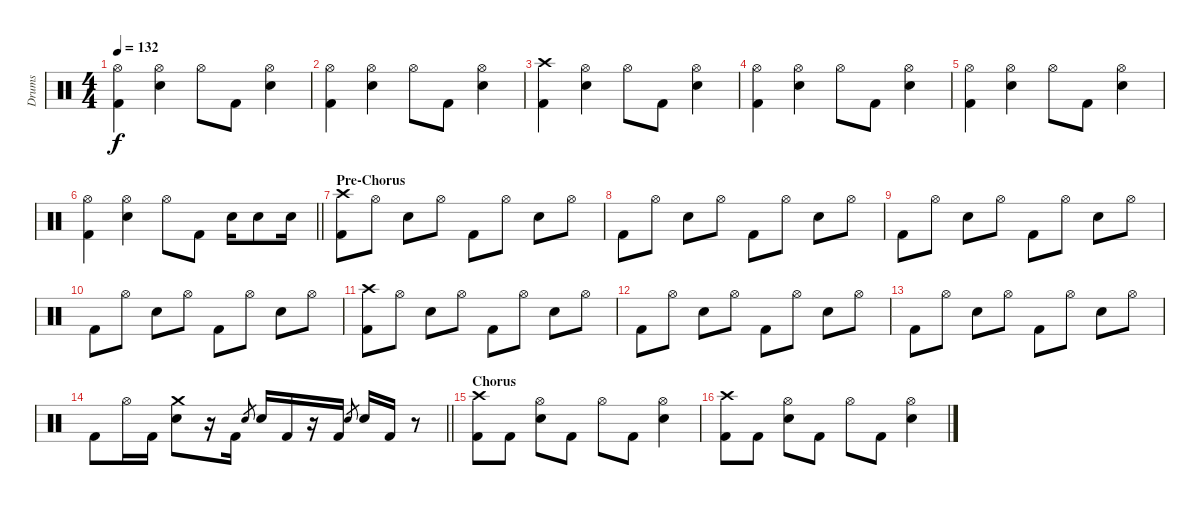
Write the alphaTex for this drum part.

\track ("Drums" "Drums") {instrument percussion}
\staff {score}
\articulation defaults
\ts (4 4)
\tempo 132
\clef neutral
\ks c
("Hi-Hat (open)" "Kick (hit) 2").4{dy f} ("Hi-Hat (open)" "Electric Snare (hit)").4 "Hi-Hat (open)".8 "Kick (hit) 2".8 ("Hi-Hat (open)" "Electric Snare (hit)").4 |
("Hi-Hat (open)" "Kick (hit) 2").4 ("Hi-Hat (open)" "Electric Snare (hit)").4 "Hi-Hat (open)".8 "Kick (hit) 2".8 ("Hi-Hat (open)" "Electric Snare (hit)").4 |
("Crash high (hit)" "Kick (hit) 2").4 ("Hi-Hat (open)" "Electric Snare (hit)").4 "Hi-Hat (open)".8 "Kick (hit) 2".8 ("Hi-Hat (open)" "Electric Snare (hit)").4 |
("Hi-Hat (open)" "Kick (hit) 2").4 ("Hi-Hat (open)" "Electric Snare (hit)").4 "Hi-Hat (open)".8 "Kick (hit) 2".8 ("Hi-Hat (open)" "Electric Snare (hit)").4 |
("Hi-Hat (open)" "Kick (hit) 2").4 ("Hi-Hat (open)" "Electric Snare (hit)").4 "Hi-Hat (open)".8 "Kick (hit) 2".8 ("Hi-Hat (open)" "Electric Snare (hit)").4 |
\barLineRight lightlight
("Hi-Hat (open)" "Kick (hit) 2").4 ("Hi-Hat (open)" "Electric Snare (hit)").4 "Hi-Hat (open)".8 "Kick (hit) 2".8 "Electric Snare (hit)".16 "Electric Snare (hit)".8 "Electric Snare (hit)".16 |
\section ("" "Pre-Chorus")
("Crash high (hit)" "Kick (hit) 2").8 "Hi-Hat (open)".8 "Electric Snare (hit)".8 "Hi-Hat (open)".8 "Kick (hit) 2".8 "Hi-Hat (open)".8 "Electric Snare (hit)".8 "Hi-Hat (open)".8 |
"Kick (hit) 2".8 "Hi-Hat (open)".8 "Electric Snare (hit)".8 "Hi-Hat (open)".8 "Kick (hit) 2".8 "Hi-Hat (open)".8 "Electric Snare (hit)".8 "Hi-Hat (open)".8 |
"Kick (hit) 2".8 "Hi-Hat (open)".8 "Electric Snare (hit)".8 "Hi-Hat (open)".8 "Kick (hit) 2".8 "Hi-Hat (open)".8 "Electric Snare (hit)".8 "Hi-Hat (open)".8 |
"Kick (hit) 2".8 "Hi-Hat (open)".8 "Electric Snare (hit)".8 "Hi-Hat (open)".8 "Kick (hit) 2".8 "Hi-Hat (open)".8 "Electric Snare (hit)".8 "Hi-Hat (open)".8 |
("Crash high (hit)" "Kick (hit) 2").8 "Hi-Hat (open)".8 "Electric Snare (hit)".8 "Hi-Hat (open)".8 "Kick (hit) 2".8 "Hi-Hat (open)".8 "Electric Snare (hit)".8 "Hi-Hat (open)".8 |
"Kick (hit) 2".8 "Hi-Hat (open)".8 "Electric Snare (hit)".8 "Hi-Hat (open)".8 "Kick (hit) 2".8 "Hi-Hat (open)".8 "Electric Snare (hit)".8 "Hi-Hat (open)".8 |
"Kick (hit) 2".8 "Hi-Hat (open)".8 "Electric Snare (hit)".8 "Hi-Hat (open)".8 "Kick (hit) 2".8 "Hi-Hat (open)".8 "Electric Snare (hit)".8 "Hi-Hat (open)".8 |
\barLineRight lightlight "Kick (hit) 2".8 "Hi-Hat (open)".16 "Kick (hit) 2".16
("Crash medium (hit)" "Electric Snare (hit)").8 r.16 "Kick (hit) 2".16 "Electric Snare (hit)".8{gr} "Electric Snare (hit)".16 "Kick (hit) 2".16 r.16 "Kick (hit) 2".16 "Electric Snare (hit)".8{gr} "Electric Snare (hit)".16 "Kick (hit) 2".16 r.8 |
\section ("" "Chorus")
("Crash high (hit)" "Kick (hit) 2").8 "Kick (hit) 2".8 ("Hi-Hat (open)" "Electric Snare (hit)").8 "Kick (hit) 2".8 "Hi-Hat (open)".8 "Kick (hit) 2".8 ("Hi-Hat (open)" "Electric Snare (hit)").4 |
("Crash high (hit)" "Kick (hit) 2").8 "Kick (hit) 2".8 ("Hi-Hat (open)" "Electric Snare (hit)").8 "Kick (hit) 2".8 "Hi-Hat (open)".8 "Kick (hit) 2".8 ("Hi-Hat (open)" "Electric Snare (hit)").4
